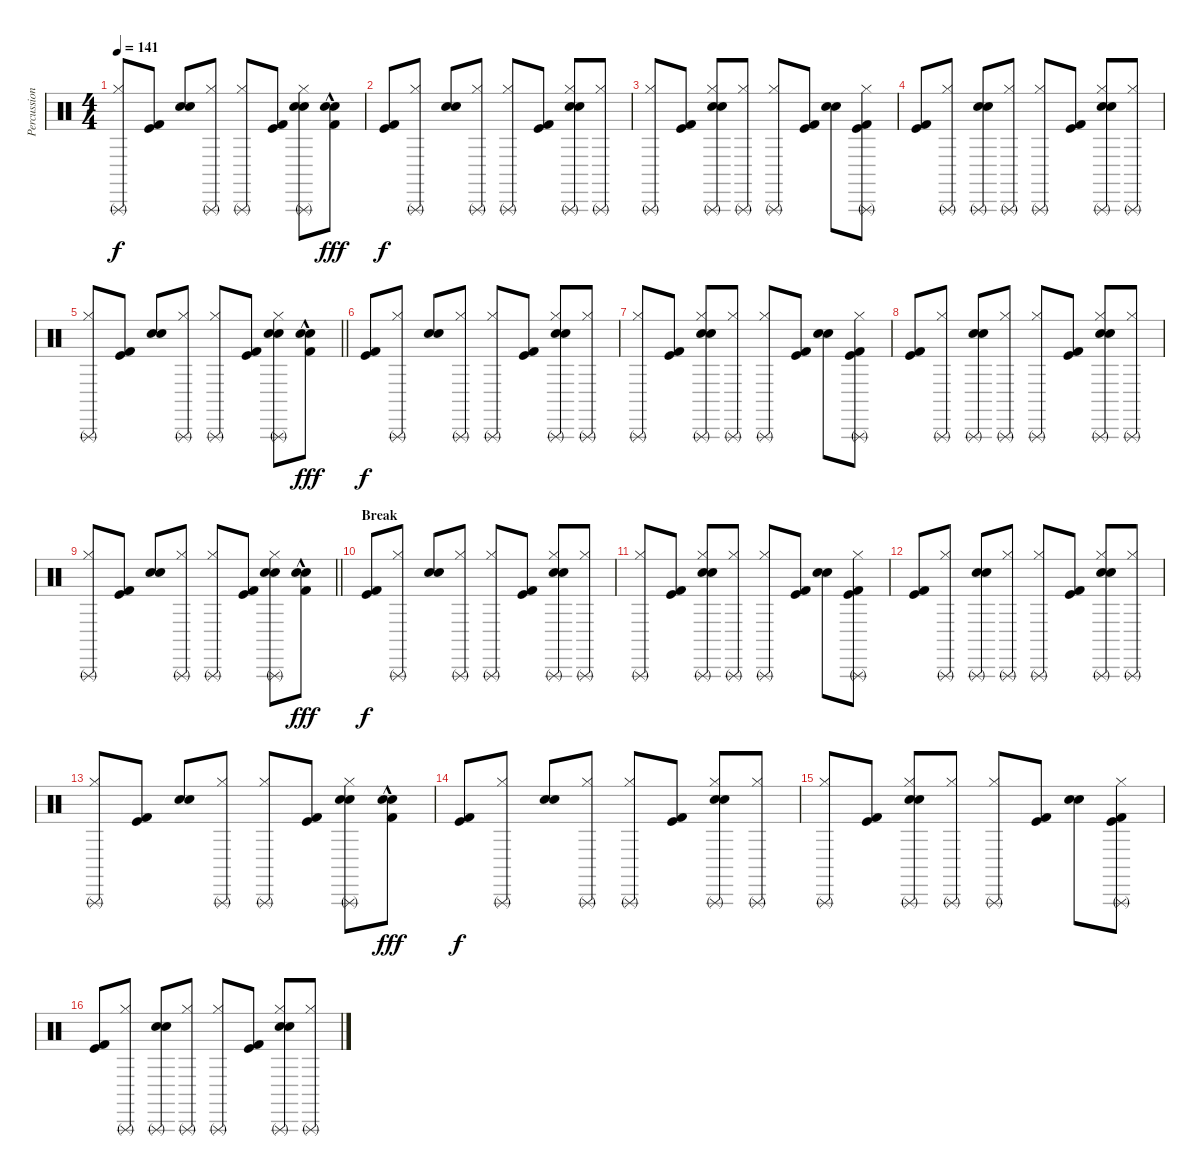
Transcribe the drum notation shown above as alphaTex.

\track ("Percussion" "Percussion") {instrument percussion}
\staff {score}
\articulation defaults
\ts (4 4)
\tempo 141
\clef neutral
\ks c
("Hi-Hat (closed)" "Triangle (rnute)").8{dy f} ("Kick (hit)" "Kick (hit) 2").8 ("Snare (hit) 2" "Electric Snare (hit)").8 ("Hi-Hat (closed)" "Triangle (rnute)").8 ("Hi-Hat (closed)" "Triangle (rnute)").8 ("Kick (hit)" "Kick (hit) 2").8 ("Snare (hit) 2" "Electric Snare (hit)" "Hi-Hat (closed)" "Triangle (rnute)").8 ("Kick (hit) 2" "Snare (hit) 2" "Electric Snare (hit)"{hac}).8{dy fff} |
("Kick (hit)" "Kick (hit) 2").8{dy f} ("Hi-Hat (closed)" "Triangle (rnute)").8 ("Snare (hit) 2" "Electric Snare (hit)").8 ("Hi-Hat (closed)" "Triangle (rnute)").8 ("Hi-Hat (closed)" "Triangle (rnute)").8 ("Kick (hit)" "Kick (hit) 2").8 ("Snare (hit) 2" "Electric Snare (hit)" "Hi-Hat (closed)" "Triangle (rnute)").8 ("Hi-Hat (closed)" "Triangle (rnute)").8 |
("Hi-Hat (closed)" "Triangle (rnute)").8 ("Kick (hit)" "Kick (hit) 2").8 ("Snare (hit) 2" "Electric Snare (hit)" "Hi-Hat (closed)" "Triangle (rnute)").8 ("Hi-Hat (closed)" "Triangle (rnute)").8 ("Hi-Hat (closed)" "Triangle (rnute)").8 ("Kick (hit)" "Kick (hit) 2").8 ("Snare (hit) 2" "Electric Snare (hit)").8 ("Kick (hit)" "Kick (hit) 2" "Hi-Hat (closed)" "Triangle (rnute)").8 |
("Kick (hit)" "Kick (hit) 2").8 ("Hi-Hat (closed)" "Triangle (rnute)").8 ("Snare (hit) 2" "Electric Snare (hit)" "Triangle (rnute)").8 ("Hi-Hat (closed)" "Triangle (rnute)").8 ("Hi-Hat (closed)" "Triangle (rnute)").8 ("Kick (hit)" "Kick (hit) 2").8 ("Snare (hit) 2" "Electric Snare (hit)" "Hi-Hat (closed)" "Triangle (rnute)").8 ("Hi-Hat (closed)" "Triangle (rnute)").8 |
\barLineRight lightlight
("Hi-Hat (closed)" "Triangle (rnute)").8 ("Kick (hit)" "Kick (hit) 2").8 ("Snare (hit) 2" "Electric Snare (hit)").8 ("Hi-Hat (closed)" "Triangle (rnute)").8 ("Hi-Hat (closed)" "Triangle (rnute)").8 ("Kick (hit)" "Kick (hit) 2").8 ("Snare (hit) 2" "Electric Snare (hit)" "Hi-Hat (closed)" "Triangle (rnute)").8 ("Kick (hit) 2" "Snare (hit) 2" "Electric Snare (hit)"{hac}).8{dy fff} |
("Kick (hit)" "Kick (hit) 2").8{dy f} ("Hi-Hat (closed)" "Triangle (rnute)").8 ("Snare (hit) 2" "Electric Snare (hit)").8 ("Hi-Hat (closed)" "Triangle (rnute)").8 ("Hi-Hat (closed)" "Triangle (rnute)").8 ("Kick (hit)" "Kick (hit) 2").8 ("Snare (hit) 2" "Electric Snare (hit)" "Hi-Hat (closed)" "Triangle (rnute)").8 ("Hi-Hat (closed)" "Triangle (rnute)").8 |
("Hi-Hat (closed)" "Triangle (rnute)").8 ("Kick (hit)" "Kick (hit) 2").8 ("Snare (hit) 2" "Electric Snare (hit)" "Hi-Hat (closed)" "Triangle (rnute)").8 ("Hi-Hat (closed)" "Triangle (rnute)").8 ("Hi-Hat (closed)" "Triangle (rnute)").8 ("Kick (hit)" "Kick (hit) 2").8 ("Snare (hit) 2" "Electric Snare (hit)").8 ("Kick (hit)" "Kick (hit) 2" "Hi-Hat (closed)" "Triangle (rnute)").8 |
("Kick (hit)" "Kick (hit) 2").8 ("Hi-Hat (closed)" "Triangle (rnute)").8 ("Snare (hit) 2" "Electric Snare (hit)" "Triangle (rnute)").8 ("Hi-Hat (closed)" "Triangle (rnute)").8 ("Hi-Hat (closed)" "Triangle (rnute)").8 ("Kick (hit)" "Kick (hit) 2").8 ("Snare (hit) 2" "Electric Snare (hit)" "Hi-Hat (closed)" "Triangle (rnute)").8 ("Hi-Hat (closed)" "Triangle (rnute)").8 |
\barLineRight lightlight
("Hi-Hat (closed)" "Triangle (rnute)").8 ("Kick (hit)" "Kick (hit) 2").8 ("Snare (hit) 2" "Electric Snare (hit)").8 ("Hi-Hat (closed)" "Triangle (rnute)").8 ("Hi-Hat (closed)" "Triangle (rnute)").8 ("Kick (hit)" "Kick (hit) 2").8 ("Snare (hit) 2" "Electric Snare (hit)" "Hi-Hat (closed)" "Triangle (rnute)").8 ("Kick (hit) 2" "Snare (hit) 2" "Electric Snare (hit)"{hac}).8{dy fff} |
\section ("" "Break")
("Kick (hit)" "Kick (hit) 2").8{dy f} ("Hi-Hat (closed)" "Triangle (rnute)").8 ("Snare (hit) 2" "Electric Snare (hit)").8 ("Hi-Hat (closed)" "Triangle (rnute)").8 ("Hi-Hat (closed)" "Triangle (rnute)").8 ("Kick (hit)" "Kick (hit) 2").8 ("Snare (hit) 2" "Electric Snare (hit)" "Hi-Hat (closed)" "Triangle (rnute)").8 ("Hi-Hat (closed)" "Triangle (rnute)").8 |
("Hi-Hat (closed)" "Triangle (rnute)").8 ("Kick (hit)" "Kick (hit) 2").8 ("Snare (hit) 2" "Electric Snare (hit)" "Hi-Hat (closed)" "Triangle (rnute)").8 ("Hi-Hat (closed)" "Triangle (rnute)").8 ("Hi-Hat (closed)" "Triangle (rnute)").8 ("Kick (hit)" "Kick (hit) 2").8 ("Snare (hit) 2" "Electric Snare (hit)").8 ("Kick (hit)" "Kick (hit) 2" "Hi-Hat (closed)" "Triangle (rnute)").8 |
("Kick (hit)" "Kick (hit) 2").8 ("Hi-Hat (closed)" "Triangle (rnute)").8 ("Snare (hit) 2" "Electric Snare (hit)" "Triangle (rnute)").8 ("Hi-Hat (closed)" "Triangle (rnute)").8 ("Hi-Hat (closed)" "Triangle (rnute)").8 ("Kick (hit)" "Kick (hit) 2").8 ("Snare (hit) 2" "Electric Snare (hit)" "Hi-Hat (closed)" "Triangle (rnute)").8 ("Hi-Hat (closed)" "Triangle (rnute)").8 |
("Hi-Hat (closed)" "Triangle (rnute)").8 ("Kick (hit)" "Kick (hit) 2").8 ("Snare (hit) 2" "Electric Snare (hit)").8 ("Hi-Hat (closed)" "Triangle (rnute)").8 ("Hi-Hat (closed)" "Triangle (rnute)").8 ("Kick (hit)" "Kick (hit) 2").8 ("Snare (hit) 2" "Electric Snare (hit)" "Hi-Hat (closed)" "Triangle (rnute)").8 ("Kick (hit) 2" "Snare (hit) 2" "Electric Snare (hit)"{hac}).8{dy fff} |
("Kick (hit)" "Kick (hit) 2").8{dy f} ("Hi-Hat (closed)" "Triangle (rnute)").8 ("Snare (hit) 2" "Electric Snare (hit)").8 ("Hi-Hat (closed)" "Triangle (rnute)").8 ("Hi-Hat (closed)" "Triangle (rnute)").8 ("Kick (hit)" "Kick (hit) 2").8 ("Snare (hit) 2" "Electric Snare (hit)" "Hi-Hat (closed)" "Triangle (rnute)").8 ("Hi-Hat (closed)" "Triangle (rnute)").8 |
("Hi-Hat (closed)" "Triangle (rnute)").8 ("Kick (hit)" "Kick (hit) 2").8 ("Snare (hit) 2" "Electric Snare (hit)" "Hi-Hat (closed)" "Triangle (rnute)").8 ("Hi-Hat (closed)" "Triangle (rnute)").8 ("Hi-Hat (closed)" "Triangle (rnute)").8 ("Kick (hit)" "Kick (hit) 2").8 ("Snare (hit) 2" "Electric Snare (hit)").8 ("Kick (hit)" "Kick (hit) 2" "Hi-Hat (closed)" "Triangle (rnute)").8 |
("Kick (hit)" "Kick (hit) 2").8 ("Hi-Hat (closed)" "Triangle (rnute)").8 ("Snare (hit) 2" "Electric Snare (hit)" "Triangle (rnute)").8 ("Hi-Hat (closed)" "Triangle (rnute)").8 ("Hi-Hat (closed)" "Triangle (rnute)").8 ("Kick (hit)" "Kick (hit) 2").8 ("Snare (hit) 2" "Electric Snare (hit)" "Hi-Hat (closed)" "Triangle (rnute)").8 ("Hi-Hat (closed)" "Triangle (rnute)").8
